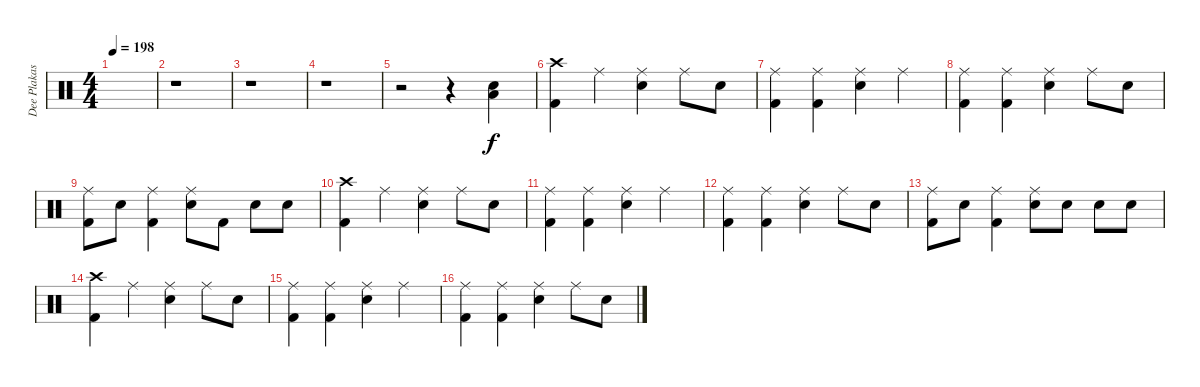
\track ("Dee Plakas" "Dee Plakas") {instrument percussion}
\staff {score}
\articulation defaults
\ts (4 4)
\tempo 198
\clef neutral
\ks c
|
r.1 |
r.1 |
r.1 |
r.2 r.4 ("Low Floor Tom (hit)" "Snare (hit) 2").4 |
("Crash high (hit)" "Kick (hit) 2").4 "Ride (middle)".4 ("Ride (middle)" "Snare (hit) 2").4 "Ride (middle)".8 "Snare (hit) 2".8 |
("Ride (middle)" "Kick (hit) 2").4 ("Ride (middle)" "Kick (hit) 2").4 ("Ride (middle)" "Snare (hit) 2").4 "Ride (middle)".4 |
("Ride (middle)" "Kick (hit) 2").4 ("Ride (middle)" "Kick (hit) 2").4 ("Ride (middle)" "Snare (hit) 2").4 "Ride (middle)".8 "Snare (hit) 2".8 |
("Ride (middle)" "Kick (hit) 2").8 "Snare (hit) 2".8 ("Ride (middle)" "Kick (hit) 2").4 ("Ride (middle)" "Snare (hit) 2").8 "Kick (hit) 2".8 "Snare (hit) 2".8 "Snare (hit) 2".8 |
("Crash high (hit)" "Kick (hit) 2").4 "Ride (middle)".4 ("Ride (middle)" "Snare (hit) 2").4 "Ride (middle)".8 "Snare (hit) 2".8 |
("Ride (middle)" "Kick (hit) 2").4 ("Ride (middle)" "Kick (hit) 2").4 ("Ride (middle)" "Snare (hit) 2").4 "Ride (middle)".4 |
("Ride (middle)" "Kick (hit) 2").4 ("Ride (middle)" "Kick (hit) 2").4 ("Ride (middle)" "Snare (hit) 2").4 "Ride (middle)".8 "Snare (hit) 2".8 |
("Ride (middle)" "Kick (hit) 2").8 "Snare (hit) 2".8 ("Ride (middle)" "Kick (hit) 2").4 ("Ride (middle)" "Snare (hit) 2").8 "Snare (hit) 2".8 "Snare (hit) 2".8 "Snare (hit) 2".8 |
("Crash high (hit)" "Kick (hit) 2").4 "Ride (middle)".4 ("Ride (middle)" "Snare (hit) 2").4 "Ride (middle)".8 "Snare (hit) 2".8 |
("Ride (middle)" "Kick (hit) 2").4 ("Ride (middle)" "Kick (hit) 2").4 ("Ride (middle)" "Snare (hit) 2").4 "Ride (middle)".4 |
("Ride (middle)" "Kick (hit) 2").4 ("Ride (middle)" "Kick (hit) 2").4 ("Ride (middle)" "Snare (hit) 2").4 "Ride (middle)".8 "Snare (hit) 2".8
